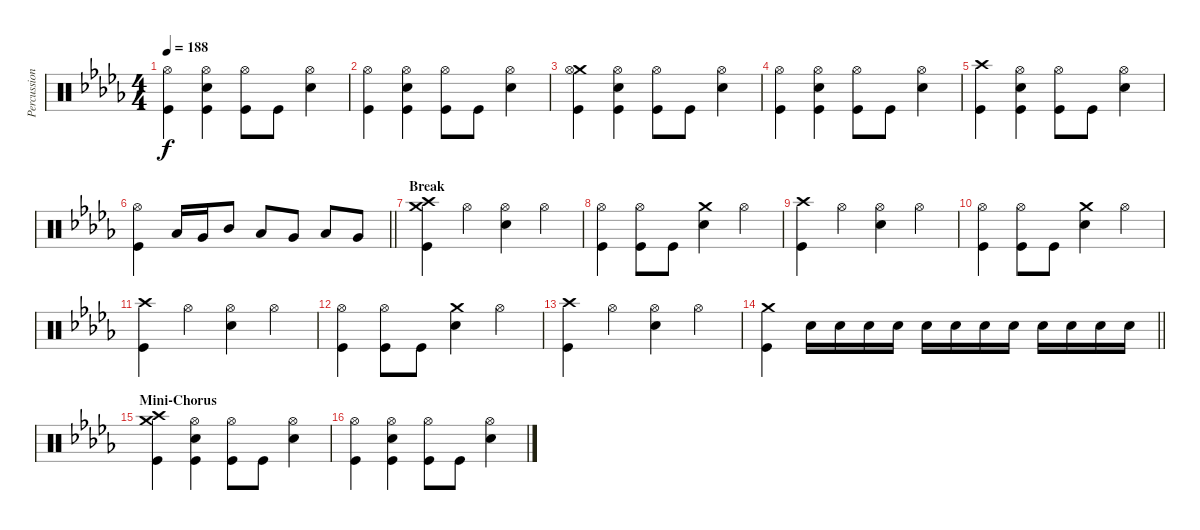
\track ("Percussion" "Percussion") {instrument percussion}
\staff {score}
\articulation defaults
\ts (4 4)
\tempo 188
\clef neutral
\ks db
("Hi-Hat (open)" "Kick (hit)").4{dy f} ("Hi-Hat (open)" "Electric Snare (hit)" "Kick (hit)").4 ("Hi-Hat (open)" "Kick (hit)").8 "Kick (hit)".8 ("Hi-Hat (open)" "Electric Snare (hit)").4 |
("Hi-Hat (open)" "Kick (hit)").4 ("Hi-Hat (open)" "Electric Snare (hit)" "Kick (hit)").4 ("Hi-Hat (open)" "Kick (hit)").8 "Kick (hit)".8 ("Hi-Hat (open)" "Electric Snare (hit)").4 |
("Crash medium (hit)" "Hi-Hat (open)" "Kick (hit)").4 ("Hi-Hat (open)" "Electric Snare (hit)" "Kick (hit)").4 ("Hi-Hat (open)" "Kick (hit)").8 "Kick (hit)".8 ("Hi-Hat (open)" "Electric Snare (hit)").4 |
("Hi-Hat (open)" "Kick (hit)").4 ("Hi-Hat (open)" "Electric Snare (hit)" "Kick (hit)").4 ("Hi-Hat (open)" "Kick (hit)").8 "Kick (hit)".8 ("Hi-Hat (open)" "Electric Snare (hit)").4 |
("Crash high (hit)" "Kick (hit)").4 ("Hi-Hat (open)" "Electric Snare (hit)" "Kick (hit)").4 ("Hi-Hat (open)" "Kick (hit)").8 "Kick (hit)".8 ("Hi-Hat (open)" "Electric Snare (hit)").4 |
\barLineRight lightlight
("Hi-Hat (open)" "Kick (hit)").4 "Low Tom (hit)".16 "Very Low Tom (hit)".16 "Mid Tom (hit)".8 "Low Tom (hit)".8 "Very Low Tom (hit)".8 "Low Floor Tom (hit)".8 "Very Low Tom (hit)".8 |
\section ("" "Break")
("Crash high (hit)" "Crash medium (hit)" "Kick (hit)").4 "Hi-Hat (open)".4 ("Hi-Hat (open)" "Electric Snare (hit)").4 "Hi-Hat (open)".4 |
("Hi-Hat (open)" "Kick (hit)").4 ("Hi-Hat (open)" "Kick (hit)").8 "Kick (hit)".8 ("Crash medium (hit)" "Electric Snare (hit)").4 "Hi-Hat (open)".4 |
("Crash high (hit)" "Kick (hit)").4 "Hi-Hat (open)".4 ("Hi-Hat (open)" "Electric Snare (hit)").4 "Hi-Hat (open)".4 |
("Hi-Hat (open)" "Kick (hit)").4 ("Hi-Hat (open)" "Kick (hit)").8 "Kick (hit)".8 ("Crash medium (hit)" "Electric Snare (hit)").4 "Hi-Hat (open)".4 |
("Crash high (hit)" "Kick (hit)").4 "Hi-Hat (open)".4 ("Hi-Hat (open)" "Electric Snare (hit)").4 "Hi-Hat (open)".4 |
("Hi-Hat (open)" "Kick (hit)").4 ("Hi-Hat (open)" "Kick (hit)").8 "Kick (hit)".8 ("Crash medium (hit)" "Electric Snare (hit)").4 "Hi-Hat (open)".4 |
("Crash high (hit)" "Kick (hit)").4 "Hi-Hat (open)".4 ("Hi-Hat (open)" "Electric Snare (hit)").4 "Hi-Hat (open)".4 |
\barLineRight lightlight
("Crash medium (hit)" "Kick (hit)").4 "Electric Snare (hit)".16 "Electric Snare (hit)".16 "Electric Snare (hit)".16 "Electric Snare (hit)".16 "Electric Snare (hit)".16 "Electric Snare (hit)".16 "Electric Snare (hit)".16 "Electric Snare (hit)".16 "Electric Snare (hit)".16 "Electric Snare (hit)".16 "Electric Snare (hit)".16 "Electric Snare (hit)".16 |
\section ("" "Mini-Chorus")
("Crash high (hit)" "Crash medium (hit)" "Kick (hit)").4 ("Hi-Hat (open)" "Electric Snare (hit)" "Kick (hit)").4 ("Hi-Hat (open)" "Kick (hit)").8 "Kick (hit)".8 ("Hi-Hat (open)" "Electric Snare (hit)").4 |
("Hi-Hat (open)" "Kick (hit)").4 ("Hi-Hat (open)" "Electric Snare (hit)" "Kick (hit)").4 ("Hi-Hat (open)" "Kick (hit)").8 "Kick (hit)".8 ("Hi-Hat (open)" "Electric Snare (hit)").4
